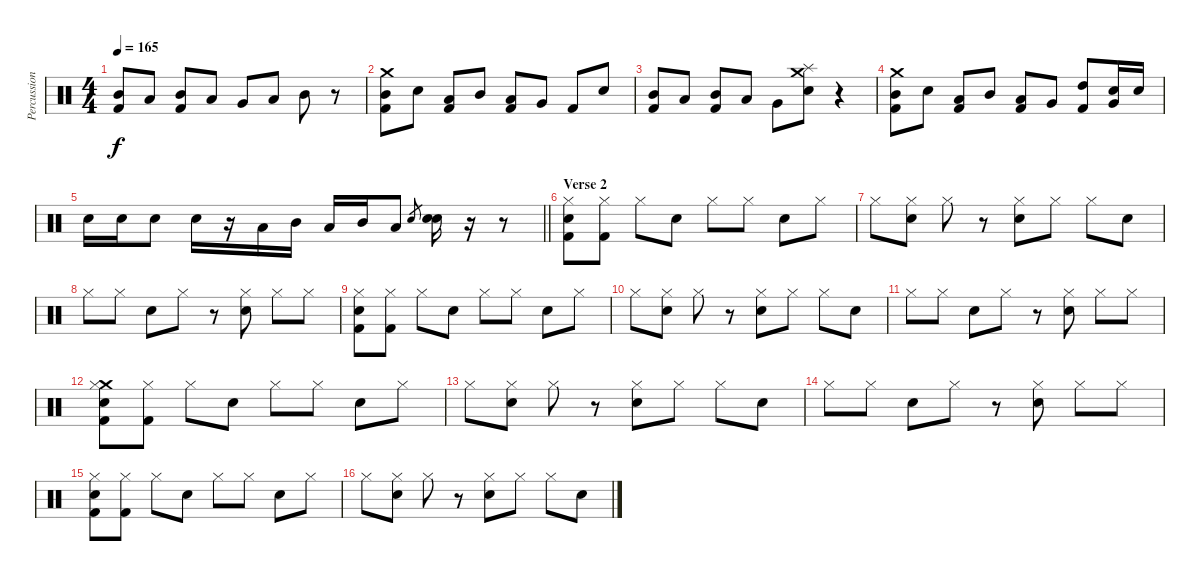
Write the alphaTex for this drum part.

\track ("Percussion" "Percussion") {instrument percussion}
\staff {score}
\articulation defaults
\ts (4 4)
\tempo 165
\clef neutral
\ks c
("Mid Tom (hit)" "Kick (hit) 2").8{dy f} "Low Tom (hit)".8 ("Mid Tom (hit)" "Kick (hit) 2").8 "Low Tom (hit)".8 "Very Low Tom (hit)".8 "Low Tom (hit)".8 "Mid Tom (hit)".8 r.8 |
("Crash medium (hit)" "Mid Tom (hit)" "Kick (hit) 2").8 "Snare (hit) 2".8 ("Low Tom (hit)" "Kick (hit) 2").8 "Mid Tom (hit)".8 ("Low Tom (hit)" "Kick (hit) 2").8 "Very Low Tom (hit)".8 "Kick (hit) 2".8 "Snare (hit) 2".8 |
("Mid Tom (hit)" "Kick (hit) 2").8 "Low Tom (hit)".8 ("Mid Tom (hit)" "Kick (hit) 2").8 "Low Tom (hit)".8 "Very Low Tom (hit)".8 ("Splash (hit)" "Crash medium (hit)" "Snare (hit) 2").8 r.4 |
("Crash medium (hit)" "Mid Tom (hit)" "Kick (hit) 2").8 "Snare (hit) 2".8 ("Low Tom (hit)" "Kick (hit) 2").8 "Mid Tom (hit)".8 ("Low Tom (hit)" "Kick (hit) 2").8 "Very Low Tom (hit)".8 ("High Tom (hit)" "Kick (hit) 2").8 ("Very Low Tom (hit)" "Snare (hit) 2").16 "Snare (hit) 2".16 |
\barLineRight lightlight "Snare (hit) 2".16 "Snare (hit) 2".16 "Snare (hit) 2".8 "Snare (hit) 2".16
r.16 "Low Tom (hit)".16 "Mid Tom (hit)".16 "Low Tom (hit)".16 "Mid Tom (hit)".16 "Low Tom (hit)".8 "Snare (hit) 2".8{gr} ("Snare (hit) 2" "Snare (hit) 2").16 r.16 r.8 |
\section ("" "Verse 2")
("Hi-Hat (closed)" "Snare (hit) 2" "Kick (hit) 2").8 ("Hi-Hat (closed)" "Kick (hit) 2").8 "Hi-Hat (closed)".8 "Snare (hit) 2".8 "Hi-Hat (closed)".8 "Hi-Hat (closed)".8 "Snare (hit) 2".8 "Hi-Hat (closed)".8 |
"Hi-Hat (closed)".8 ("Hi-Hat (closed)" "Snare (hit) 2").8 "Hi-Hat (closed)".8 r.8 ("Hi-Hat (closed)" "Snare (hit) 2").8 "Hi-Hat (closed)".8 "Hi-Hat (closed)".8 "Snare (hit) 2".8 |
"Hi-Hat (closed)".8 "Hi-Hat (closed)".8 "Snare (hit) 2".8 "Hi-Hat (closed)".8 r.8 ("Hi-Hat (closed)" "Snare (hit) 2").8 "Hi-Hat (closed)".8 "Hi-Hat (closed)".8 |
("Hi-Hat (closed)" "Snare (hit) 2" "Kick (hit) 2").8 ("Hi-Hat (closed)" "Kick (hit) 2").8 "Hi-Hat (closed)".8 "Snare (hit) 2".8 "Hi-Hat (closed)".8 "Hi-Hat (closed)".8 "Snare (hit) 2".8 "Hi-Hat (closed)".8 |
"Hi-Hat (closed)".8 ("Hi-Hat (closed)" "Snare (hit) 2").8 "Hi-Hat (closed)".8 r.8 ("Hi-Hat (closed)" "Snare (hit) 2").8 "Hi-Hat (closed)".8 "Hi-Hat (closed)".8 "Snare (hit) 2".8 |
"Hi-Hat (closed)".8 "Hi-Hat (closed)".8 "Snare (hit) 2".8 "Hi-Hat (closed)".8 r.8 ("Hi-Hat (closed)" "Snare (hit) 2").8 "Hi-Hat (closed)".8 "Hi-Hat (closed)".8 |
("Crash medium (hit)" "Hi-Hat (closed)" "Snare (hit) 2" "Kick (hit) 2").8 ("Hi-Hat (closed)" "Kick (hit) 2").8 "Hi-Hat (closed)".8 "Snare (hit) 2".8 "Hi-Hat (closed)".8 "Hi-Hat (closed)".8 "Snare (hit) 2".8 "Hi-Hat (closed)".8 |
"Hi-Hat (closed)".8 ("Hi-Hat (closed)" "Snare (hit) 2").8 "Hi-Hat (closed)".8 r.8 ("Hi-Hat (closed)" "Snare (hit) 2").8 "Hi-Hat (closed)".8 "Hi-Hat (closed)".8 "Snare (hit) 2".8 |
"Hi-Hat (closed)".8 "Hi-Hat (closed)".8 "Snare (hit) 2".8 "Hi-Hat (closed)".8 r.8 ("Hi-Hat (closed)" "Snare (hit) 2").8 "Hi-Hat (closed)".8 "Hi-Hat (closed)".8 |
("Hi-Hat (closed)" "Snare (hit) 2" "Kick (hit) 2").8 ("Hi-Hat (closed)" "Kick (hit) 2").8 "Hi-Hat (closed)".8 "Snare (hit) 2".8 "Hi-Hat (closed)".8 "Hi-Hat (closed)".8 "Snare (hit) 2".8 "Hi-Hat (closed)".8 |
"Hi-Hat (closed)".8 ("Hi-Hat (closed)" "Snare (hit) 2").8 "Hi-Hat (closed)".8 r.8 ("Hi-Hat (closed)" "Snare (hit) 2").8 "Hi-Hat (closed)".8 "Hi-Hat (closed)".8 "Snare (hit) 2".8
